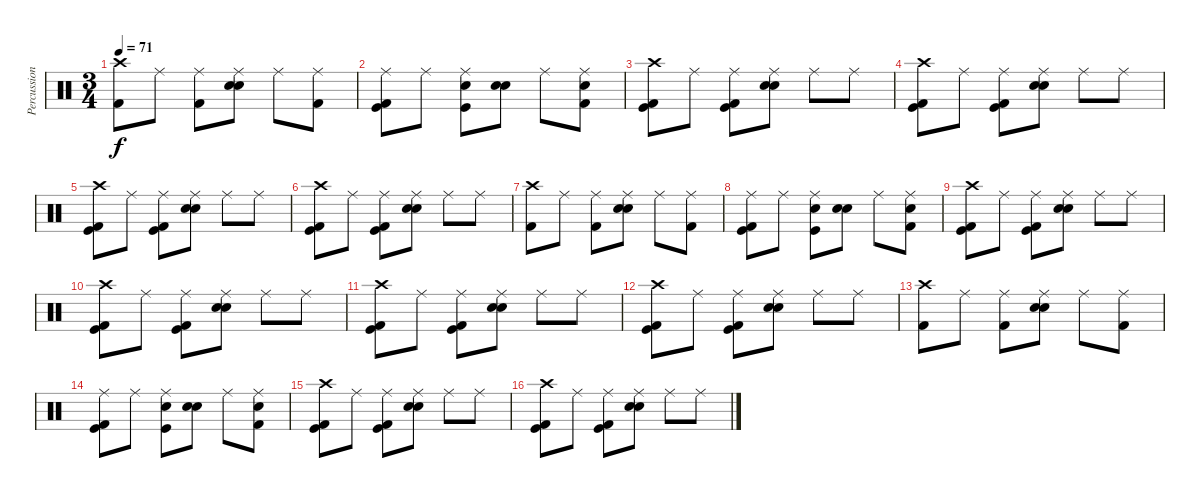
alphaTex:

\track ("Percussion" "Percussion") {instrument percussion}
\staff {score}
\articulation defaults
\ts (3 4)
\tempo 71
\clef neutral
\ks c
("Kick (hit) 2" "Crash high (hit)").8{dy f} "Ride (middle)".8 ("Kick (hit) 2" "Ride (middle)").8 ("Ride (middle)" "Electric Snare (hit)" "Snare (hit) 2").8 "Ride (middle)".8 ("Kick (hit) 2" "Ride (middle)").8 |
("Ride (middle)" "Kick (hit) 2" "Kick (hit)").8 "Ride (middle)".8 ("Kick (hit)" "Snare (hit) 2" "Ride (middle)").8 ("Electric Snare (hit)" "Snare (hit) 2").8 "Ride (middle)".8 ("Kick (hit) 2" "Snare (hit) 2" "Ride (middle)").8 |
("Kick (hit)" "Kick (hit) 2" "Crash high (hit)").8 "Ride (middle)".8 ("Kick (hit) 2" "Kick (hit)" "Ride (middle)").8 ("Ride (middle)" "Electric Snare (hit)" "Snare (hit) 2").8 "Ride (middle)".8 "Ride (middle)".8 |
("Kick (hit)" "Kick (hit) 2" "Crash high (hit)").8 "Ride (middle)".8 ("Kick (hit) 2" "Kick (hit)" "Ride (middle)").8 ("Ride (middle)" "Electric Snare (hit)" "Snare (hit) 2").8 "Ride (middle)".8 "Ride (middle)".8 |
("Kick (hit)" "Kick (hit) 2" "Crash high (hit)").8 "Ride (middle)".8 ("Kick (hit) 2" "Kick (hit)" "Ride (middle)").8 ("Ride (middle)" "Electric Snare (hit)" "Snare (hit) 2").8 "Ride (middle)".8 "Ride (middle)".8 |
("Kick (hit)" "Kick (hit) 2" "Crash high (hit)").8 "Ride (middle)".8 ("Kick (hit) 2" "Kick (hit)" "Ride (middle)").8 ("Ride (middle)" "Electric Snare (hit)" "Snare (hit) 2").8 "Ride (middle)".8 "Ride (middle)".8 |
("Kick (hit) 2" "Crash high (hit)").8 "Ride (middle)".8 ("Kick (hit) 2" "Ride (middle)").8 ("Ride (middle)" "Electric Snare (hit)" "Snare (hit) 2").8 "Ride (middle)".8 ("Kick (hit) 2" "Ride (middle)").8 |
("Ride (middle)" "Kick (hit) 2" "Kick (hit)").8 "Ride (middle)".8 ("Kick (hit)" "Snare (hit) 2" "Ride (middle)").8 ("Electric Snare (hit)" "Snare (hit) 2").8 "Ride (middle)".8 ("Kick (hit) 2" "Snare (hit) 2" "Ride (middle)").8 |
("Kick (hit)" "Kick (hit) 2" "Crash high (hit)").8 "Ride (middle)".8 ("Kick (hit) 2" "Kick (hit)" "Ride (middle)").8 ("Ride (middle)" "Electric Snare (hit)" "Snare (hit) 2").8 "Ride (middle)".8 "Ride (middle)".8 |
("Kick (hit)" "Kick (hit) 2" "Crash high (hit)").8 "Ride (middle)".8 ("Kick (hit) 2" "Kick (hit)" "Ride (middle)").8 ("Ride (middle)" "Electric Snare (hit)" "Snare (hit) 2").8 "Ride (middle)".8 "Ride (middle)".8 |
("Kick (hit)" "Kick (hit) 2" "Crash high (hit)").8 "Ride (middle)".8 ("Kick (hit) 2" "Kick (hit)" "Ride (middle)").8 ("Ride (middle)" "Electric Snare (hit)" "Snare (hit) 2").8 "Ride (middle)".8 "Ride (middle)".8 |
("Kick (hit)" "Kick (hit) 2" "Crash high (hit)").8 "Ride (middle)".8 ("Kick (hit) 2" "Kick (hit)" "Ride (middle)").8 ("Ride (middle)" "Electric Snare (hit)" "Snare (hit) 2").8 "Ride (middle)".8 "Ride (middle)".8 |
("Kick (hit) 2" "Crash high (hit)").8 "Ride (middle)".8 ("Kick (hit) 2" "Ride (middle)").8 ("Ride (middle)" "Electric Snare (hit)" "Snare (hit) 2").8 "Ride (middle)".8 ("Kick (hit) 2" "Ride (middle)").8 |
("Ride (middle)" "Kick (hit) 2" "Kick (hit)").8 "Ride (middle)".8 ("Kick (hit)" "Snare (hit) 2" "Ride (middle)").8 ("Electric Snare (hit)" "Snare (hit) 2").8 "Ride (middle)".8 ("Kick (hit) 2" "Snare (hit) 2" "Ride (middle)").8 |
("Kick (hit)" "Kick (hit) 2" "Crash high (hit)").8 "Ride (middle)".8 ("Kick (hit) 2" "Kick (hit)" "Ride (middle)").8 ("Ride (middle)" "Electric Snare (hit)" "Snare (hit) 2").8 "Ride (middle)".8 "Ride (middle)".8 |
("Kick (hit)" "Kick (hit) 2" "Crash high (hit)").8 "Ride (middle)".8 ("Kick (hit) 2" "Kick (hit)" "Ride (middle)").8 ("Ride (middle)" "Electric Snare (hit)" "Snare (hit) 2").8 "Ride (middle)".8 "Ride (middle)".8
